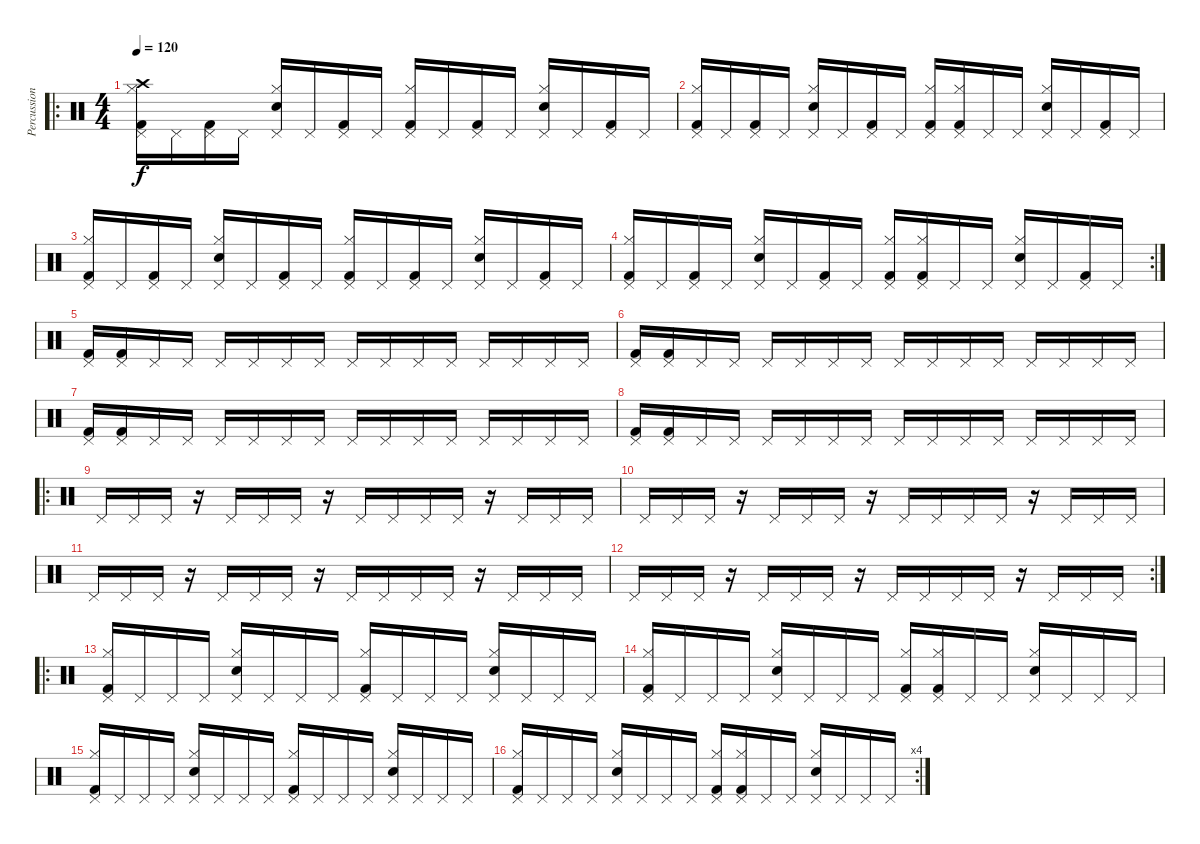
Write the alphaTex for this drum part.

\track ("Percussions" "Percussion") {instrument percussion}
\staff {score}
\articulation defaults
\ro
\ts (4 4)
\tempo 120
\clef neutral
\ks c
("Crash high (hit)" "Pedal Hi-Hat (hit)" "Hi-Hat (closed)" "Kick (hit) 2").16{dy f} "Pedal Hi-Hat (hit)".16 ("Pedal Hi-Hat (hit)" "Kick (hit) 2").16 "Pedal Hi-Hat (hit)".16 ("Pedal Hi-Hat (hit)" "Hand Clap (hit)" "Hi-Hat (closed)").16 "Pedal Hi-Hat (hit)".16 ("Pedal Hi-Hat (hit)" "Kick (hit) 2").16 "Pedal Hi-Hat (hit)".16 ("Pedal Hi-Hat (hit)" "Hi-Hat (closed)" "Kick (hit) 2").16 "Pedal Hi-Hat (hit)".16 ("Pedal Hi-Hat (hit)" "Kick (hit) 2").16 "Pedal Hi-Hat (hit)".16 ("Pedal Hi-Hat (hit)" "Hand Clap (hit)" "Hi-Hat (closed)").16 "Pedal Hi-Hat (hit)".16 ("Pedal Hi-Hat (hit)" "Kick (hit) 2").16 "Pedal Hi-Hat (hit)".16 |
("Pedal Hi-Hat (hit)" "Hi-Hat (closed)" "Kick (hit) 2").16 "Pedal Hi-Hat (hit)".16 ("Pedal Hi-Hat (hit)" "Kick (hit) 2").16 "Pedal Hi-Hat (hit)".16 ("Pedal Hi-Hat (hit)" "Hand Clap (hit)" "Hi-Hat (closed)").16 "Pedal Hi-Hat (hit)".16 ("Pedal Hi-Hat (hit)" "Kick (hit) 2").16 "Pedal Hi-Hat (hit)".16 ("Pedal Hi-Hat (hit)" "Hi-Hat (closed)" "Kick (hit) 2").16 ("Pedal Hi-Hat (hit)" "Hi-Hat (closed)" "Kick (hit) 2").16 "Pedal Hi-Hat (hit)".16 "Pedal Hi-Hat (hit)".16 ("Pedal Hi-Hat (hit)" "Hand Clap (hit)" "Hi-Hat (closed)").16 "Pedal Hi-Hat (hit)".16 ("Pedal Hi-Hat (hit)" "Kick (hit) 2").16 "Pedal Hi-Hat (hit)".16 |
("Pedal Hi-Hat (hit)" "Hi-Hat (closed)" "Kick (hit) 2").16 "Pedal Hi-Hat (hit)".16 ("Pedal Hi-Hat (hit)" "Kick (hit) 2").16 "Pedal Hi-Hat (hit)".16 ("Pedal Hi-Hat (hit)" "Hand Clap (hit)" "Hi-Hat (closed)").16 "Pedal Hi-Hat (hit)".16 ("Pedal Hi-Hat (hit)" "Kick (hit) 2").16 "Pedal Hi-Hat (hit)".16 ("Pedal Hi-Hat (hit)" "Hi-Hat (closed)" "Kick (hit) 2").16 "Pedal Hi-Hat (hit)".16 ("Pedal Hi-Hat (hit)" "Kick (hit) 2").16 "Pedal Hi-Hat (hit)".16 ("Pedal Hi-Hat (hit)" "Hand Clap (hit)" "Hi-Hat (closed)").16 "Pedal Hi-Hat (hit)".16 ("Pedal Hi-Hat (hit)" "Kick (hit) 2").16 "Pedal Hi-Hat (hit)".16 |
\rc 2
("Pedal Hi-Hat (hit)" "Hi-Hat (closed)" "Kick (hit) 2").16 "Pedal Hi-Hat (hit)".16 ("Pedal Hi-Hat (hit)" "Kick (hit) 2").16 "Pedal Hi-Hat (hit)".16 ("Pedal Hi-Hat (hit)" "Hand Clap (hit)" "Hi-Hat (closed)").16 "Pedal Hi-Hat (hit)".16 ("Pedal Hi-Hat (hit)" "Kick (hit) 2").16 "Pedal Hi-Hat (hit)".16 ("Pedal Hi-Hat (hit)" "Hi-Hat (closed)" "Kick (hit) 2").16 ("Pedal Hi-Hat (hit)" "Hi-Hat (closed)" "Kick (hit) 2").16 "Pedal Hi-Hat (hit)".16 "Pedal Hi-Hat (hit)".16 ("Pedal Hi-Hat (hit)" "Hand Clap (hit)" "Hi-Hat (closed)").16 "Pedal Hi-Hat (hit)".16 ("Pedal Hi-Hat (hit)" "Kick (hit) 2").16 "Pedal Hi-Hat (hit)".16 |
("Pedal Hi-Hat (hit)" "Kick (hit) 2").16 ("Pedal Hi-Hat (hit)" "Kick (hit) 2").16 "Pedal Hi-Hat (hit)".16 "Pedal Hi-Hat (hit)".16 "Pedal Hi-Hat (hit)".16 "Pedal Hi-Hat (hit)".16 "Pedal Hi-Hat (hit)".16 "Pedal Hi-Hat (hit)".16 "Pedal Hi-Hat (hit)".16 "Pedal Hi-Hat (hit)".16 "Pedal Hi-Hat (hit)".16 "Pedal Hi-Hat (hit)".16 "Pedal Hi-Hat (hit)".16 "Pedal Hi-Hat (hit)".16 "Pedal Hi-Hat (hit)".16 "Pedal Hi-Hat (hit)".16 |
("Pedal Hi-Hat (hit)" "Kick (hit) 2").16 ("Pedal Hi-Hat (hit)" "Kick (hit) 2").16 "Pedal Hi-Hat (hit)".16 "Pedal Hi-Hat (hit)".16 "Pedal Hi-Hat (hit)".16 "Pedal Hi-Hat (hit)".16 "Pedal Hi-Hat (hit)".16 "Pedal Hi-Hat (hit)".16 "Pedal Hi-Hat (hit)".16 "Pedal Hi-Hat (hit)".16 "Pedal Hi-Hat (hit)".16 "Pedal Hi-Hat (hit)".16 "Pedal Hi-Hat (hit)".16 "Pedal Hi-Hat (hit)".16 "Pedal Hi-Hat (hit)".16 "Pedal Hi-Hat (hit)".16 |
("Pedal Hi-Hat (hit)" "Kick (hit) 2").16 ("Pedal Hi-Hat (hit)" "Kick (hit) 2").16 "Pedal Hi-Hat (hit)".16 "Pedal Hi-Hat (hit)".16 "Pedal Hi-Hat (hit)".16 "Pedal Hi-Hat (hit)".16 "Pedal Hi-Hat (hit)".16 "Pedal Hi-Hat (hit)".16 "Pedal Hi-Hat (hit)".16 "Pedal Hi-Hat (hit)".16 "Pedal Hi-Hat (hit)".16 "Pedal Hi-Hat (hit)".16 "Pedal Hi-Hat (hit)".16 "Pedal Hi-Hat (hit)".16 "Pedal Hi-Hat (hit)".16 "Pedal Hi-Hat (hit)".16 |
("Pedal Hi-Hat (hit)" "Kick (hit) 2").16 ("Pedal Hi-Hat (hit)" "Kick (hit) 2").16 "Pedal Hi-Hat (hit)".16 "Pedal Hi-Hat (hit)".16 "Pedal Hi-Hat (hit)".16 "Pedal Hi-Hat (hit)".16 "Pedal Hi-Hat (hit)".16 "Pedal Hi-Hat (hit)".16 "Pedal Hi-Hat (hit)".16 "Pedal Hi-Hat (hit)".16 "Pedal Hi-Hat (hit)".16 "Pedal Hi-Hat (hit)".16 "Pedal Hi-Hat (hit)".16 "Pedal Hi-Hat (hit)".16 "Pedal Hi-Hat (hit)".16 "Pedal Hi-Hat (hit)".16 |
\ro "Pedal Hi-Hat (hit)".16 "Pedal Hi-Hat (hit)".16 "Pedal Hi-Hat (hit)".16
r.16 "Pedal Hi-Hat (hit)".16 "Pedal Hi-Hat (hit)".16 "Pedal Hi-Hat (hit)".16 r.16 "Pedal Hi-Hat (hit)".16 "Pedal Hi-Hat (hit)".16 "Pedal Hi-Hat (hit)".16 "Pedal Hi-Hat (hit)".16 r.16 "Pedal Hi-Hat (hit)".16 "Pedal Hi-Hat (hit)".16 "Pedal Hi-Hat (hit)".16 |
"Pedal Hi-Hat (hit)".16 "Pedal Hi-Hat (hit)".16 "Pedal Hi-Hat (hit)".16 r.16 "Pedal Hi-Hat (hit)".16 "Pedal Hi-Hat (hit)".16 "Pedal Hi-Hat (hit)".16 r.16 "Pedal Hi-Hat (hit)".16 "Pedal Hi-Hat (hit)".16 "Pedal Hi-Hat (hit)".16 "Pedal Hi-Hat (hit)".16 r.16 "Pedal Hi-Hat (hit)".16 "Pedal Hi-Hat (hit)".16 "Pedal Hi-Hat (hit)".16 |
"Pedal Hi-Hat (hit)".16 "Pedal Hi-Hat (hit)".16 "Pedal Hi-Hat (hit)".16 r.16 "Pedal Hi-Hat (hit)".16 "Pedal Hi-Hat (hit)".16 "Pedal Hi-Hat (hit)".16 r.16 "Pedal Hi-Hat (hit)".16 "Pedal Hi-Hat (hit)".16 "Pedal Hi-Hat (hit)".16 "Pedal Hi-Hat (hit)".16 r.16 "Pedal Hi-Hat (hit)".16 "Pedal Hi-Hat (hit)".16 "Pedal Hi-Hat (hit)".16 |
\rc 2 "Pedal Hi-Hat (hit)".16 "Pedal Hi-Hat (hit)".16 "Pedal Hi-Hat (hit)".16
r.16 "Pedal Hi-Hat (hit)".16 "Pedal Hi-Hat (hit)".16 "Pedal Hi-Hat (hit)".16 r.16 "Pedal Hi-Hat (hit)".16 "Pedal Hi-Hat (hit)".16 "Pedal Hi-Hat (hit)".16 "Pedal Hi-Hat (hit)".16 r.16 "Pedal Hi-Hat (hit)".16 "Pedal Hi-Hat (hit)".16 "Pedal Hi-Hat (hit)".16 |
\ro
("Pedal Hi-Hat (hit)" "Hi-Hat (closed)" "Kick (hit) 2").16 "Pedal Hi-Hat (hit)".16 "Pedal Hi-Hat (hit)".16 "Pedal Hi-Hat (hit)".16 ("Pedal Hi-Hat (hit)" "Hand Clap (hit)" "Hi-Hat (closed)").16 "Pedal Hi-Hat (hit)".16 "Pedal Hi-Hat (hit)".16 "Pedal Hi-Hat (hit)".16 ("Pedal Hi-Hat (hit)" "Hi-Hat (closed)" "Kick (hit) 2").16 "Pedal Hi-Hat (hit)".16 "Pedal Hi-Hat (hit)".16 "Pedal Hi-Hat (hit)".16 ("Pedal Hi-Hat (hit)" "Hand Clap (hit)" "Hi-Hat (closed)").16 "Pedal Hi-Hat (hit)".16 "Pedal Hi-Hat (hit)".16 "Pedal Hi-Hat (hit)".16 |
("Pedal Hi-Hat (hit)" "Hi-Hat (closed)" "Kick (hit) 2").16 "Pedal Hi-Hat (hit)".16 "Pedal Hi-Hat (hit)".16 "Pedal Hi-Hat (hit)".16 ("Pedal Hi-Hat (hit)" "Hand Clap (hit)" "Hi-Hat (closed)").16 "Pedal Hi-Hat (hit)".16 "Pedal Hi-Hat (hit)".16 "Pedal Hi-Hat (hit)".16 ("Pedal Hi-Hat (hit)" "Hi-Hat (closed)" "Kick (hit) 2").16 ("Pedal Hi-Hat (hit)" "Hi-Hat (closed)" "Kick (hit) 2").16 "Pedal Hi-Hat (hit)".16 "Pedal Hi-Hat (hit)".16 ("Pedal Hi-Hat (hit)" "Hand Clap (hit)" "Hi-Hat (closed)").16 "Pedal Hi-Hat (hit)".16 "Pedal Hi-Hat (hit)".16 "Pedal Hi-Hat (hit)".16 |
("Pedal Hi-Hat (hit)" "Hi-Hat (closed)" "Kick (hit) 2").16 "Pedal Hi-Hat (hit)".16 "Pedal Hi-Hat (hit)".16 "Pedal Hi-Hat (hit)".16 ("Pedal Hi-Hat (hit)" "Hand Clap (hit)" "Hi-Hat (closed)").16 "Pedal Hi-Hat (hit)".16 "Pedal Hi-Hat (hit)".16 "Pedal Hi-Hat (hit)".16 ("Pedal Hi-Hat (hit)" "Hi-Hat (closed)" "Kick (hit) 2").16 "Pedal Hi-Hat (hit)".16 "Pedal Hi-Hat (hit)".16 "Pedal Hi-Hat (hit)".16 ("Pedal Hi-Hat (hit)" "Hand Clap (hit)" "Hi-Hat (closed)").16 "Pedal Hi-Hat (hit)".16 "Pedal Hi-Hat (hit)".16 "Pedal Hi-Hat (hit)".16 |
\rc 4
("Pedal Hi-Hat (hit)" "Hi-Hat (closed)" "Kick (hit) 2").16 "Pedal Hi-Hat (hit)".16 "Pedal Hi-Hat (hit)".16 "Pedal Hi-Hat (hit)".16 ("Pedal Hi-Hat (hit)" "Hand Clap (hit)" "Hi-Hat (closed)").16 "Pedal Hi-Hat (hit)".16 "Pedal Hi-Hat (hit)".16 "Pedal Hi-Hat (hit)".16 ("Pedal Hi-Hat (hit)" "Hi-Hat (closed)" "Kick (hit) 2").16 ("Pedal Hi-Hat (hit)" "Hi-Hat (closed)" "Kick (hit) 2").16 "Pedal Hi-Hat (hit)".16 "Pedal Hi-Hat (hit)".16 ("Pedal Hi-Hat (hit)" "Hand Clap (hit)" "Hi-Hat (closed)").16 "Pedal Hi-Hat (hit)".16 "Pedal Hi-Hat (hit)".16 "Pedal Hi-Hat (hit)".16
